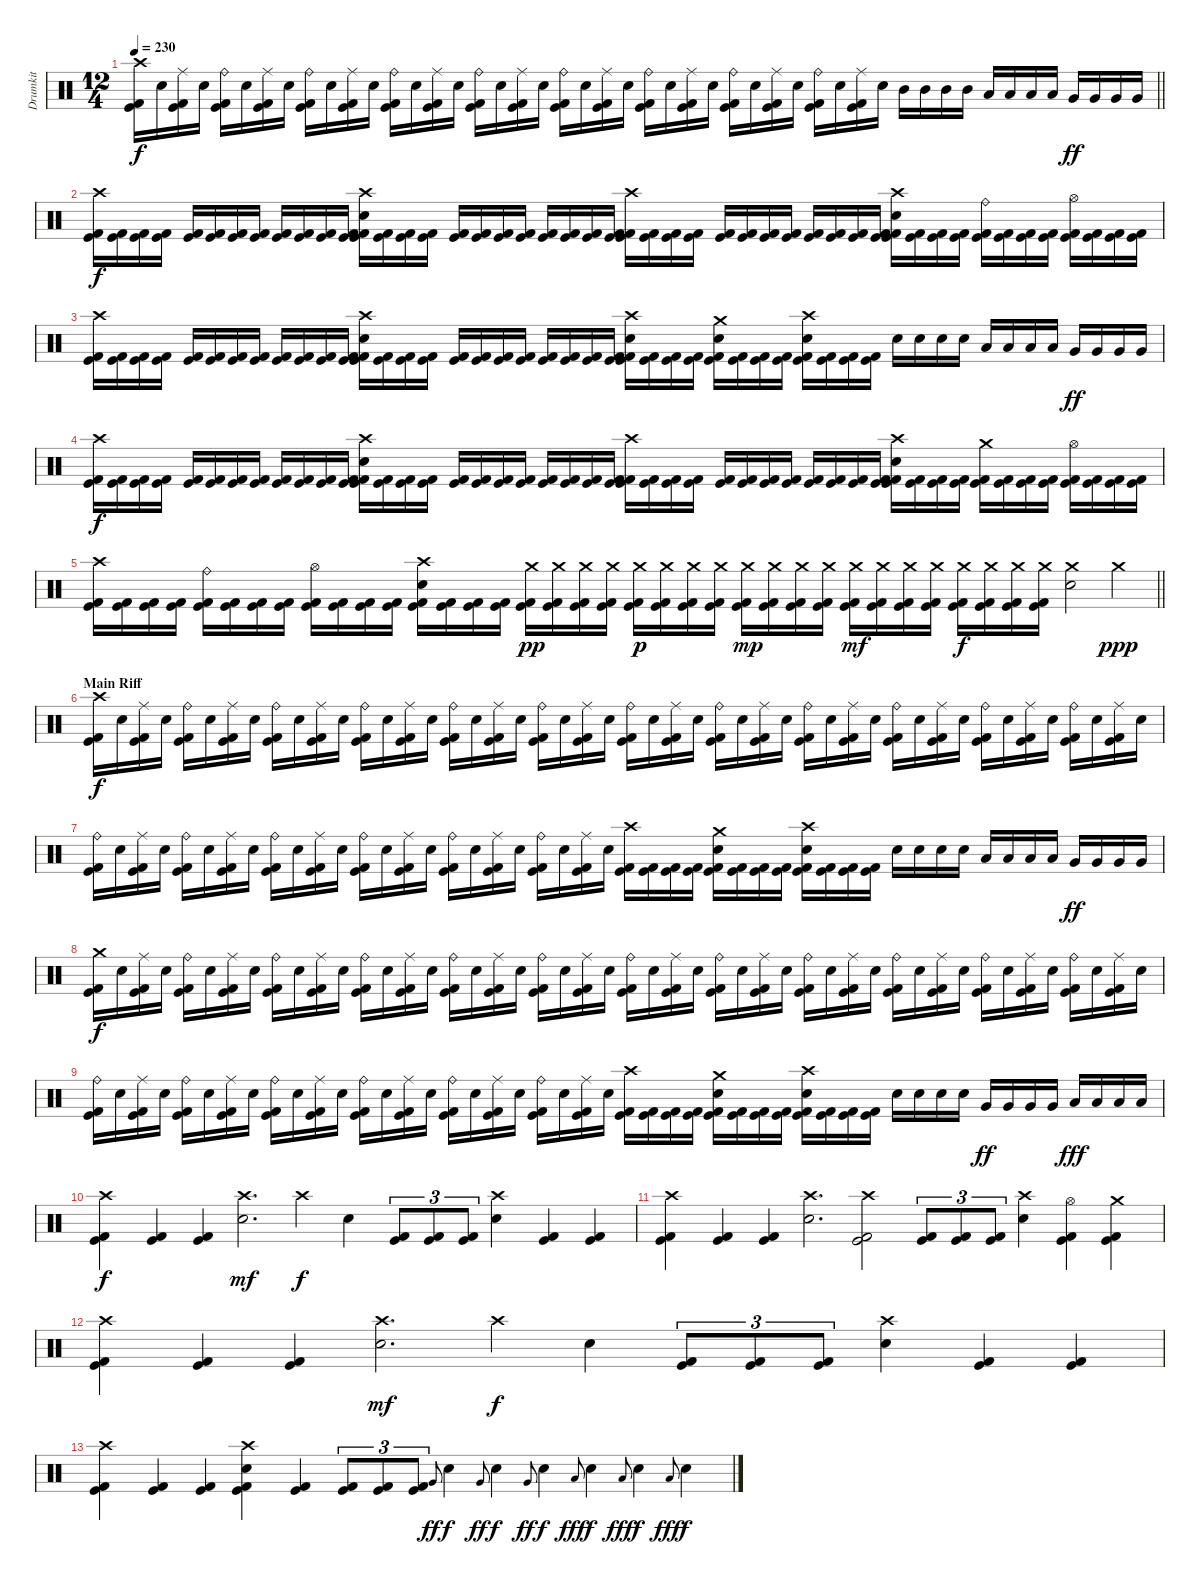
\track ("Drumkit" "Drumkit") {instrument percussion}
\staff {score}
\articulation defaults
\ts (12 4)
\tempo 230
\clef neutral
\barLineRight lightlight
\ks c
("Crash high (hit)" "Kick (hit)" "Kick (hit) 2").16{dy f} "Electric Snare (hit)".16 ("Ride (middle)" "Kick (hit)" "Kick (hit) 2").16 "Electric Snare (hit)".16 ("Ride (bell)" "Kick (hit)" "Kick (hit) 2").16 "Electric Snare (hit)".16 ("Ride (middle)" "Kick (hit)" "Kick (hit) 2").16 "Electric Snare (hit)".16 ("Ride (bell)" "Kick (hit)" "Kick (hit) 2").16 "Electric Snare (hit)".16 ("Ride (middle)" "Kick (hit)" "Kick (hit) 2").16 "Electric Snare (hit)".16 ("Ride (bell)" "Kick (hit)" "Kick (hit) 2").16 "Electric Snare (hit)".16 ("Ride (middle)" "Kick (hit)" "Kick (hit) 2").16 "Electric Snare (hit)".16 ("Ride (bell)" "Kick (hit)" "Kick (hit) 2").16 "Electric Snare (hit)".16 ("Ride (middle)" "Kick (hit)" "Kick (hit) 2").16 "Electric Snare (hit)".16 ("Ride (bell)" "Kick (hit)" "Kick (hit) 2").16 "Electric Snare (hit)".16 ("Ride (middle)" "Kick (hit)" "Kick (hit) 2").16 "Electric Snare (hit)".16 ("Ride (bell)" "Kick (hit)" "Kick (hit) 2").16 "Electric Snare (hit)".16 ("Ride (middle)" "Kick (hit)" "Kick (hit) 2").16 "Electric Snare (hit)".16 ("Ride (bell)" "Kick (hit)" "Kick (hit) 2").16 "Electric Snare (hit)".16 ("Ride (middle)" "Kick (hit)" "Kick (hit) 2").16 "Electric Snare (hit)".16 ("Ride (bell)" "Kick (hit)" "Kick (hit) 2").16 "Electric Snare (hit)".16 ("Ride (middle)" "Kick (hit)" "Kick (hit) 2").16 "Electric Snare (hit)".16 "Mid Tom (hit)".16 "Mid Tom (hit)".16 "Mid Tom (hit)".16 "Mid Tom (hit)".16 "Low Tom (hit)".16 "Low Tom (hit)".16 "Low Tom (hit)".16 "Low Tom (hit)".16 "Very Low Tom (hit)".16{dy ff} "Very Low Tom (hit)".16 "Very Low Tom (hit)".16 "Very Low Tom (hit)".16 |
("Crash high (hit)" "Kick (hit)" "Kick (hit) 2").16{dy f} ("Kick (hit)" "Kick (hit) 2").16 ("Kick (hit)" "Kick (hit) 2").16 ("Kick (hit)" "Kick (hit) 2").16 ("Kick (hit)" "Kick (hit) 2").16 ("Kick (hit)" "Kick (hit) 2").16 ("Kick (hit)" "Kick (hit) 2").16 ("Kick (hit)" "Kick (hit) 2").16 ("Kick (hit)" "Kick (hit) 2").16 ("Kick (hit)" "Kick (hit) 2").16 ("Kick (hit)" "Kick (hit) 2").16 ("Kick (hit)" "Kick (hit) 2").16 ("Crash high (hit)" "Electric Snare (hit)" "Kick (hit)" "Kick (hit) 2").16 ("Kick (hit)" "Kick (hit) 2").16 ("Kick (hit)" "Kick (hit) 2").16 ("Kick (hit)" "Kick (hit) 2").16 ("Kick (hit)" "Kick (hit) 2").16 ("Kick (hit)" "Kick (hit) 2").16 ("Kick (hit)" "Kick (hit) 2").16 ("Kick (hit)" "Kick (hit) 2").16 ("Kick (hit)" "Kick (hit) 2").16 ("Kick (hit)" "Kick (hit) 2").16 ("Kick (hit)" "Kick (hit) 2").16 ("Kick (hit)" "Kick (hit) 2").16 ("Crash high (hit)" "Kick (hit)" "Kick (hit) 2").16 ("Kick (hit)" "Kick (hit) 2").16 ("Kick (hit)" "Kick (hit) 2").16 ("Kick (hit)" "Kick (hit) 2").16 ("Kick (hit)" "Kick (hit) 2").16 ("Kick (hit)" "Kick (hit) 2").16 ("Kick (hit)" "Kick (hit) 2").16 ("Kick (hit)" "Kick (hit) 2").16 ("Kick (hit)" "Kick (hit) 2").16 ("Kick (hit)" "Kick (hit) 2").16 ("Kick (hit)" "Kick (hit) 2").16 ("Kick (hit)" "Kick (hit) 2").16 ("Crash high (hit)" "Electric Snare (hit)" "Kick (hit)" "Kick (hit) 2").16 ("Kick (hit)" "Kick (hit) 2").16 ("Kick (hit)" "Kick (hit) 2").16 ("Kick (hit)" "Kick (hit) 2").16 ("Ride (bell)" "Kick (hit)" "Kick (hit) 2").16 ("Kick (hit)" "Kick (hit) 2").16 ("Kick (hit)" "Kick (hit) 2").16 ("Kick (hit)" "Kick (hit) 2").16 ("Hi-Hat (open)" "Kick (hit)" "Kick (hit) 2").16 ("Kick (hit)" "Kick (hit) 2").16 ("Kick (hit)" "Kick (hit) 2").16 ("Kick (hit)" "Kick (hit) 2").16 |
("Crash high (hit)" "Kick (hit)" "Kick (hit) 2").16 ("Kick (hit)" "Kick (hit) 2").16 ("Kick (hit)" "Kick (hit) 2").16 ("Kick (hit)" "Kick (hit) 2").16 ("Kick (hit)" "Kick (hit) 2").16 ("Kick (hit)" "Kick (hit) 2").16 ("Kick (hit)" "Kick (hit) 2").16 ("Kick (hit)" "Kick (hit) 2").16 ("Kick (hit)" "Kick (hit) 2").16 ("Kick (hit)" "Kick (hit) 2").16 ("Kick (hit)" "Kick (hit) 2").16 ("Kick (hit)" "Kick (hit) 2").16 ("Crash high (hit)" "Electric Snare (hit)" "Kick (hit)" "Kick (hit) 2").16 ("Kick (hit)" "Kick (hit) 2").16 ("Kick (hit)" "Kick (hit) 2").16 ("Kick (hit)" "Kick (hit) 2").16 ("Kick (hit)" "Kick (hit) 2").16 ("Kick (hit)" "Kick (hit) 2").16 ("Kick (hit)" "Kick (hit) 2").16 ("Kick (hit)" "Kick (hit) 2").16 ("Kick (hit)" "Kick (hit) 2").16 ("Kick (hit)" "Kick (hit) 2").16 ("Kick (hit)" "Kick (hit) 2").16 ("Kick (hit)" "Kick (hit) 2").16 ("Crash high (hit)" "Electric Snare (hit)" "Kick (hit)" "Kick (hit) 2").16 ("Kick (hit)" "Kick (hit) 2").16 ("Kick (hit)" "Kick (hit) 2").16 ("Kick (hit)" "Kick (hit) 2").16 ("Crash medium (hit)" "Electric Snare (hit)" "Kick (hit)" "Kick (hit) 2").16 ("Kick (hit)" "Kick (hit) 2").16 ("Kick (hit)" "Kick (hit) 2").16 ("Kick (hit)" "Kick (hit) 2").16 ("Crash high (hit)" "Electric Snare (hit)" "Kick (hit)" "Kick (hit) 2").16 ("Kick (hit)" "Kick (hit) 2").16 ("Kick (hit)" "Kick (hit) 2").16 ("Kick (hit)" "Kick (hit) 2").16 "Electric Snare (hit)".16 "Electric Snare (hit)".16 "Electric Snare (hit)".16 "Electric Snare (hit)".16 "Low Tom (hit)".16 "Low Tom (hit)".16 "Low Tom (hit)".16 "Low Tom (hit)".16 "Very Low Tom (hit)".16{dy ff} "Very Low Tom (hit)".16 "Very Low Tom (hit)".16 "Very Low Tom (hit)".16 |
("Crash high (hit)" "Kick (hit)" "Kick (hit) 2").16{dy f} ("Kick (hit)" "Kick (hit) 2").16 ("Kick (hit)" "Kick (hit) 2").16 ("Kick (hit)" "Kick (hit) 2").16 ("Kick (hit)" "Kick (hit) 2").16 ("Kick (hit)" "Kick (hit) 2").16 ("Kick (hit)" "Kick (hit) 2").16 ("Kick (hit)" "Kick (hit) 2").16 ("Kick (hit)" "Kick (hit) 2").16 ("Kick (hit)" "Kick (hit) 2").16 ("Kick (hit)" "Kick (hit) 2").16 ("Kick (hit)" "Kick (hit) 2").16 ("Crash high (hit)" "Electric Snare (hit)" "Kick (hit)" "Kick (hit) 2").16 ("Kick (hit)" "Kick (hit) 2").16 ("Kick (hit)" "Kick (hit) 2").16 ("Kick (hit)" "Kick (hit) 2").16 ("Kick (hit)" "Kick (hit) 2").16 ("Kick (hit)" "Kick (hit) 2").16 ("Kick (hit)" "Kick (hit) 2").16 ("Kick (hit)" "Kick (hit) 2").16 ("Kick (hit)" "Kick (hit) 2").16 ("Kick (hit)" "Kick (hit) 2").16 ("Kick (hit)" "Kick (hit) 2").16 ("Kick (hit)" "Kick (hit) 2").16 ("Crash high (hit)" "Kick (hit)" "Kick (hit) 2").16 ("Kick (hit)" "Kick (hit) 2").16 ("Kick (hit)" "Kick (hit) 2").16 ("Kick (hit)" "Kick (hit) 2").16 ("Kick (hit)" "Kick (hit) 2").16 ("Kick (hit)" "Kick (hit) 2").16 ("Kick (hit)" "Kick (hit) 2").16 ("Kick (hit)" "Kick (hit) 2").16 ("Kick (hit)" "Kick (hit) 2").16 ("Kick (hit)" "Kick (hit) 2").16 ("Kick (hit)" "Kick (hit) 2").16 ("Kick (hit)" "Kick (hit) 2").16 ("Crash high (hit)" "Electric Snare (hit)" "Kick (hit)" "Kick (hit) 2").16 ("Kick (hit)" "Kick (hit) 2").16 ("Kick (hit)" "Kick (hit) 2").16 ("Kick (hit)" "Kick (hit) 2").16 ("Crash medium (hit)" "Kick (hit)" "Kick (hit) 2").16 ("Kick (hit)" "Kick (hit) 2").16 ("Kick (hit)" "Kick (hit) 2").16 ("Kick (hit)" "Kick (hit) 2").16 ("Hi-Hat (open)" "Kick (hit)" "Kick (hit) 2").16 ("Kick (hit)" "Kick (hit) 2").16 ("Kick (hit)" "Kick (hit) 2").16 ("Kick (hit)" "Kick (hit) 2").16 |
\barLineRight lightlight
("Crash high (hit)" "Kick (hit)" "Kick (hit) 2").16 ("Kick (hit)" "Kick (hit) 2").16 ("Kick (hit)" "Kick (hit) 2").16 ("Kick (hit)" "Kick (hit) 2").16 ("Ride (bell)" "Kick (hit)" "Kick (hit) 2").16 ("Kick (hit)" "Kick (hit) 2").16 ("Kick (hit)" "Kick (hit) 2").16 ("Kick (hit)" "Kick (hit) 2").16 ("Hi-Hat (open)" "Kick (hit)" "Kick (hit) 2").16 ("Kick (hit)" "Kick (hit) 2").16 ("Kick (hit)" "Kick (hit) 2").16 ("Kick (hit)" "Kick (hit) 2").16 ("Crash high (hit)" "Electric Snare (hit)" "Kick (hit)" "Kick (hit) 2").16 ("Kick (hit)" "Kick (hit) 2").16 ("Kick (hit)" "Kick (hit) 2").16 ("Kick (hit)" "Kick (hit) 2").16 ("Crash medium (hit)" "Kick (hit)" "Kick (hit) 2").16{dy pp} ("Crash medium (hit)" "Kick (hit)" "Kick (hit) 2").16 ("Crash medium (hit)" "Kick (hit)" "Kick (hit) 2").16 ("Crash medium (hit)" "Kick (hit)" "Kick (hit) 2").16 ("Crash medium (hit)" "Kick (hit)" "Kick (hit) 2").16{dy p} ("Crash medium (hit)" "Kick (hit)" "Kick (hit) 2").16 ("Crash medium (hit)" "Kick (hit)" "Kick (hit) 2").16 ("Crash medium (hit)" "Kick (hit)" "Kick (hit) 2").16 ("Crash medium (hit)" "Kick (hit)" "Kick (hit) 2").16{dy mp} ("Crash medium (hit)" "Kick (hit)" "Kick (hit) 2").16 ("Crash medium (hit)" "Kick (hit)" "Kick (hit) 2").16 ("Crash medium (hit)" "Kick (hit)" "Kick (hit) 2").16 ("Crash medium (hit)" "Kick (hit)" "Kick (hit) 2").16{dy mf} ("Crash medium (hit)" "Kick (hit)" "Kick (hit) 2").16 ("Crash medium (hit)" "Kick (hit)" "Kick (hit) 2").16 ("Crash medium (hit)" "Kick (hit)" "Kick (hit) 2").16 ("Crash medium (hit)" "Kick (hit)" "Kick (hit) 2").16{dy f} ("Crash medium (hit)" "Kick (hit)" "Kick (hit) 2").16 ("Crash medium (hit)" "Kick (hit)" "Kick (hit) 2").16 ("Crash medium (hit)" "Kick (hit)" "Kick (hit) 2").16 ("Crash medium (hit)" "Electric Snare (hit)").2 "Crash medium (hit)".4{dy ppp} |
\section ("" "Main Riff")
("Crash high (hit)" "Kick (hit)" "Kick (hit) 2").16{dy f} "Electric Snare (hit)".16 ("Ride (middle)" "Kick (hit)" "Kick (hit) 2").16 "Electric Snare (hit)".16 ("Ride (bell)" "Kick (hit)" "Kick (hit) 2").16 "Electric Snare (hit)".16 ("Ride (middle)" "Kick (hit)" "Kick (hit) 2").16 "Electric Snare (hit)".16 ("Ride (bell)" "Kick (hit)" "Kick (hit) 2").16 "Electric Snare (hit)".16 ("Ride (middle)" "Kick (hit)" "Kick (hit) 2").16 "Electric Snare (hit)".16 ("Ride (bell)" "Kick (hit)" "Kick (hit) 2").16 "Electric Snare (hit)".16 ("Ride (middle)" "Kick (hit)" "Kick (hit) 2").16 "Electric Snare (hit)".16 ("Ride (bell)" "Kick (hit)" "Kick (hit) 2").16 "Electric Snare (hit)".16 ("Ride (middle)" "Kick (hit)" "Kick (hit) 2").16 "Electric Snare (hit)".16 ("Ride (bell)" "Kick (hit)" "Kick (hit) 2").16 "Electric Snare (hit)".16 ("Ride (middle)" "Kick (hit)" "Kick (hit) 2").16 "Electric Snare (hit)".16 ("Ride (bell)" "Kick (hit)" "Kick (hit) 2").16 "Electric Snare (hit)".16 ("Ride (middle)" "Kick (hit)" "Kick (hit) 2").16 "Electric Snare (hit)".16 ("Ride (bell)" "Kick (hit)" "Kick (hit) 2").16 "Electric Snare (hit)".16 ("Ride (middle)" "Kick (hit)" "Kick (hit) 2").16 "Electric Snare (hit)".16 ("Ride (bell)" "Kick (hit)" "Kick (hit) 2").16 "Electric Snare (hit)".16 ("Ride (middle)" "Kick (hit)" "Kick (hit) 2").16 "Electric Snare (hit)".16 ("Ride (bell)" "Kick (hit)" "Kick (hit) 2").16 "Electric Snare (hit)".16 ("Ride (middle)" "Kick (hit)" "Kick (hit) 2").16 "Electric Snare (hit)".16 ("Ride (bell)" "Kick (hit)" "Kick (hit) 2").16 "Electric Snare (hit)".16 ("Ride (middle)" "Kick (hit)" "Kick (hit) 2").16 "Electric Snare (hit)".16 ("Ride (bell)" "Kick (hit)" "Kick (hit) 2").16 "Electric Snare (hit)".16 ("Ride (middle)" "Kick (hit)" "Kick (hit) 2").16 "Electric Snare (hit)".16 |
("Ride (bell)" "Kick (hit)" "Kick (hit) 2").16 "Electric Snare (hit)".16 ("Ride (middle)" "Kick (hit)" "Kick (hit) 2").16 "Electric Snare (hit)".16 ("Ride (bell)" "Kick (hit)" "Kick (hit) 2").16 "Electric Snare (hit)".16 ("Ride (middle)" "Kick (hit)" "Kick (hit) 2").16 "Electric Snare (hit)".16 ("Ride (bell)" "Kick (hit)" "Kick (hit) 2").16 "Electric Snare (hit)".16 ("Ride (middle)" "Kick (hit)" "Kick (hit) 2").16 "Electric Snare (hit)".16 ("Ride (bell)" "Kick (hit)" "Kick (hit) 2").16 "Electric Snare (hit)".16 ("Ride (middle)" "Kick (hit)" "Kick (hit) 2").16 "Electric Snare (hit)".16 ("Ride (bell)" "Kick (hit)" "Kick (hit) 2").16 "Electric Snare (hit)".16 ("Ride (middle)" "Kick (hit)" "Kick (hit) 2").16 "Electric Snare (hit)".16 ("Ride (bell)" "Kick (hit)" "Kick (hit) 2").16 "Electric Snare (hit)".16 ("Ride (middle)" "Kick (hit)" "Kick (hit) 2").16 "Electric Snare (hit)".16 ("Crash high (hit)" "Kick (hit)" "Kick (hit) 2").16 ("Kick (hit)" "Kick (hit) 2").16 ("Kick (hit)" "Kick (hit) 2").16 ("Kick (hit)" "Kick (hit) 2").16 ("Crash medium (hit)" "Electric Snare (hit)" "Kick (hit)" "Kick (hit) 2").16 ("Kick (hit)" "Kick (hit) 2").16 ("Kick (hit)" "Kick (hit) 2").16 ("Kick (hit)" "Kick (hit) 2").16 ("Crash high (hit)" "Electric Snare (hit)" "Kick (hit)" "Kick (hit) 2").16 ("Kick (hit)" "Kick (hit) 2").16 ("Kick (hit)" "Kick (hit) 2").16 ("Kick (hit)" "Kick (hit) 2").16 "Electric Snare (hit)".16 "Electric Snare (hit)".16 "Electric Snare (hit)".16 "Electric Snare (hit)".16 "Low Tom (hit)".16 "Low Tom (hit)".16 "Low Tom (hit)".16 "Low Tom (hit)".16 "Very Low Tom (hit)".16{dy ff} "Very Low Tom (hit)".16 "Very Low Tom (hit)".16 "Very Low Tom (hit)".16 |
("Crash medium (hit)" "Kick (hit)" "Kick (hit) 2").16{dy f} "Electric Snare (hit)".16 ("Ride (middle)" "Kick (hit)" "Kick (hit) 2").16 "Electric Snare (hit)".16 ("Ride (bell)" "Kick (hit)" "Kick (hit) 2").16 "Electric Snare (hit)".16 ("Ride (middle)" "Kick (hit)" "Kick (hit) 2").16 "Electric Snare (hit)".16 ("Ride (bell)" "Kick (hit)" "Kick (hit) 2").16 "Electric Snare (hit)".16 ("Ride (middle)" "Kick (hit)" "Kick (hit) 2").16 "Electric Snare (hit)".16 ("Ride (bell)" "Kick (hit)" "Kick (hit) 2").16 "Electric Snare (hit)".16 ("Ride (middle)" "Kick (hit)" "Kick (hit) 2").16 "Electric Snare (hit)".16 ("Ride (bell)" "Kick (hit)" "Kick (hit) 2").16 "Electric Snare (hit)".16 ("Ride (middle)" "Kick (hit)" "Kick (hit) 2").16 "Electric Snare (hit)".16 ("Ride (bell)" "Kick (hit)" "Kick (hit) 2").16 "Electric Snare (hit)".16 ("Ride (middle)" "Kick (hit)" "Kick (hit) 2").16 "Electric Snare (hit)".16 ("Ride (bell)" "Kick (hit)" "Kick (hit) 2").16 "Electric Snare (hit)".16 ("Ride (middle)" "Kick (hit)" "Kick (hit) 2").16 "Electric Snare (hit)".16 ("Ride (bell)" "Kick (hit)" "Kick (hit) 2").16 "Electric Snare (hit)".16 ("Ride (middle)" "Kick (hit)" "Kick (hit) 2").16 "Electric Snare (hit)".16 ("Ride (bell)" "Kick (hit)" "Kick (hit) 2").16 "Electric Snare (hit)".16 ("Ride (middle)" "Kick (hit)" "Kick (hit) 2").16 "Electric Snare (hit)".16 ("Ride (bell)" "Kick (hit)" "Kick (hit) 2").16 "Electric Snare (hit)".16 ("Ride (middle)" "Kick (hit)" "Kick (hit) 2").16 "Electric Snare (hit)".16 ("Ride (bell)" "Kick (hit)" "Kick (hit) 2").16 "Electric Snare (hit)".16 ("Ride (middle)" "Kick (hit)" "Kick (hit) 2").16 "Electric Snare (hit)".16 ("Ride (bell)" "Kick (hit)" "Kick (hit) 2").16 "Electric Snare (hit)".16 ("Ride (middle)" "Kick (hit)" "Kick (hit) 2").16 "Electric Snare (hit)".16 |
("Ride (bell)" "Kick (hit)" "Kick (hit) 2").16 "Electric Snare (hit)".16 ("Ride (middle)" "Kick (hit)" "Kick (hit) 2").16 "Electric Snare (hit)".16 ("Ride (bell)" "Kick (hit)" "Kick (hit) 2").16 "Electric Snare (hit)".16 ("Ride (middle)" "Kick (hit)" "Kick (hit) 2").16 "Electric Snare (hit)".16 ("Ride (bell)" "Kick (hit)" "Kick (hit) 2").16 "Electric Snare (hit)".16 ("Ride (middle)" "Kick (hit)" "Kick (hit) 2").16 "Electric Snare (hit)".16 ("Ride (bell)" "Kick (hit)" "Kick (hit) 2").16 "Electric Snare (hit)".16 ("Ride (middle)" "Kick (hit)" "Kick (hit) 2").16 "Electric Snare (hit)".16 ("Ride (bell)" "Kick (hit)" "Kick (hit) 2").16 "Electric Snare (hit)".16 ("Ride (middle)" "Kick (hit)" "Kick (hit) 2").16 "Electric Snare (hit)".16 ("Ride (bell)" "Kick (hit)" "Kick (hit) 2").16 "Electric Snare (hit)".16 ("Ride (middle)" "Kick (hit)" "Kick (hit) 2").16 "Electric Snare (hit)".16 ("Crash high (hit)" "Kick (hit)" "Kick (hit) 2").16 ("Kick (hit)" "Kick (hit) 2").16 ("Kick (hit)" "Kick (hit) 2").16 ("Kick (hit)" "Kick (hit) 2").16 ("Crash medium (hit)" "Electric Snare (hit)" "Kick (hit)" "Kick (hit) 2").16 ("Kick (hit)" "Kick (hit) 2").16 ("Kick (hit)" "Kick (hit) 2").16 ("Kick (hit)" "Kick (hit) 2").16 ("Crash high (hit)" "Electric Snare (hit)" "Kick (hit)" "Kick (hit) 2").16 ("Kick (hit)" "Kick (hit) 2").16 ("Kick (hit)" "Kick (hit) 2").16 ("Kick (hit)" "Kick (hit) 2").16 "Electric Snare (hit)".16 "Electric Snare (hit)".16 "Electric Snare (hit)".16 "Electric Snare (hit)".16 "Very Low Tom (hit)".16{dy ff} "Very Low Tom (hit)".16 "Very Low Tom (hit)".16 "Very Low Tom (hit)".16 "Low Floor Tom (hit)".16{dy fff} "Low Floor Tom (hit)".16 "Low Floor Tom (hit)".16 "Low Floor Tom (hit)".16 |
("Crash high (hit)" "Kick (hit)" "Kick (hit) 2").4{dy f} ("Kick (hit)" "Kick (hit) 2").4 ("Kick (hit)" "Kick (hit) 2").4 ("Crash high (hit)" "Electric Snare (hit)").2{d dy mf} "Crash high (hit)".4{dy f} "Electric Snare (hit)".4 ("Kick (hit)" "Kick (hit) 2").8{tu (3 2)} ("Kick (hit)" "Kick (hit) 2").8{tu (3 2)} ("Kick (hit)" "Kick (hit) 2").8{tu (3 2)} ("Crash high (hit)" "Electric Snare (hit)").4 ("Kick (hit)" "Kick (hit) 2").4 ("Kick (hit)" "Kick (hit) 2").4 |
("Crash high (hit)" "Kick (hit)" "Kick (hit) 2").4 ("Kick (hit)" "Kick (hit) 2").4 ("Kick (hit)" "Kick (hit) 2").4 ("Crash high (hit)" "Electric Snare (hit)").2{d} ("Crash high (hit)" "Kick (hit)" "Kick (hit) 2").2 ("Kick (hit)" "Kick (hit) 2").8{tu (3 2)} ("Kick (hit)" "Kick (hit) 2").8{tu (3 2)} ("Kick (hit)" "Kick (hit) 2").8{tu (3 2)} ("Crash high (hit)" "Electric Snare (hit)").4 ("Hi-Hat (open)" "Kick (hit)" "Kick (hit) 2").4 ("Crash medium (hit)" "Kick (hit)" "Kick (hit) 2").4 |
("Crash high (hit)" "Kick (hit)" "Kick (hit) 2").4 ("Kick (hit)" "Kick (hit) 2").4 ("Kick (hit)" "Kick (hit) 2").4 ("Crash high (hit)" "Electric Snare (hit)").2{d dy mf} "Crash high (hit)".4{dy f} "Electric Snare (hit)".4 ("Kick (hit)" "Kick (hit) 2").8{tu (3 2)} ("Kick (hit)" "Kick (hit) 2").8{tu (3 2)} ("Kick (hit)" "Kick (hit) 2").8{tu (3 2)} ("Crash high (hit)" "Electric Snare (hit)").4 ("Kick (hit)" "Kick (hit) 2").4 ("Kick (hit)" "Kick (hit) 2").4 |
("Crash high (hit)" "Kick (hit)" "Kick (hit) 2").4 ("Kick (hit)" "Kick (hit) 2").4 ("Kick (hit)" "Kick (hit) 2").4 ("Crash high (hit)" "Electric Snare (hit)" "Kick (hit)" "Kick (hit) 2").4 ("Kick (hit)" "Kick (hit) 2").4 ("Kick (hit)" "Kick (hit) 2").8{tu (3 2)} ("Kick (hit)" "Kick (hit) 2").8{tu (3 2)} ("Kick (hit)" "Kick (hit) 2").8{tu (3 2)} "Very Low Tom (hit)".8{gr onbeat dy ff} "Electric Snare (hit)".4{dy f} "Very Low Tom (hit)".8{gr onbeat dy ff} "Electric Snare (hit)".4{dy f} "Very Low Tom (hit)".8{gr onbeat dy ff} "Electric Snare (hit)".4{dy f} "Low Floor Tom (hit)".8{gr onbeat dy fff} "Electric Snare (hit)".4{dy f} "Low Floor Tom (hit)".8{gr onbeat dy fff} "Electric Snare (hit)".4{dy f} "Low Floor Tom (hit)".8{gr onbeat dy fff} "Electric Snare (hit)".4{dy f}
